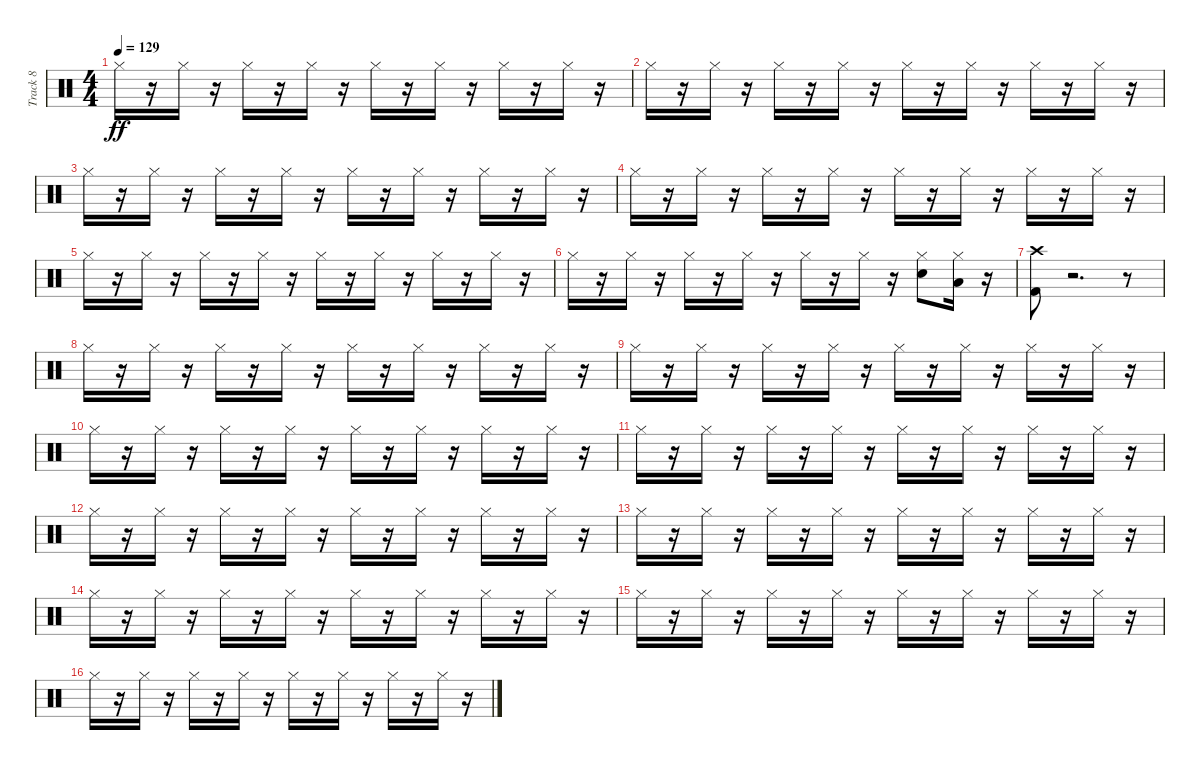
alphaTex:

\track ("Track 8" "Track 8") {instrument percussion}
\staff {score}
\articulation defaults
\ts (4 4)
\tempo 129
\clef neutral
\ks c "Hi-Hat (closed)".16{dy ff}
r.16 "Hi-Hat (closed)".16 r.16 "Hi-Hat (closed)".16 r.16 "Hi-Hat (closed)".16 r.16 "Hi-Hat (closed)".16 r.16 "Hi-Hat (closed)".16 r.16 "Hi-Hat (closed)".16 r.16 "Hi-Hat (closed)".16 r.16 |
"Hi-Hat (closed)".16 r.16 "Hi-Hat (closed)".16 r.16 "Hi-Hat (closed)".16 r.16 "Hi-Hat (closed)".16 r.16 "Hi-Hat (closed)".16 r.16 "Hi-Hat (closed)".16 r.16 "Hi-Hat (closed)".16 r.16 "Hi-Hat (closed)".16 r.16 |
"Hi-Hat (closed)".16 r.16 "Hi-Hat (closed)".16 r.16 "Hi-Hat (closed)".16 r.16 "Hi-Hat (closed)".16 r.16 "Hi-Hat (closed)".16 r.16 "Hi-Hat (closed)".16 r.16 "Hi-Hat (closed)".16 r.16 "Hi-Hat (closed)".16 r.16 |
"Hi-Hat (closed)".16 r.16 "Hi-Hat (closed)".16 r.16 "Hi-Hat (closed)".16 r.16 "Hi-Hat (closed)".16 r.16 "Hi-Hat (closed)".16 r.16 "Hi-Hat (closed)".16 r.16 "Hi-Hat (closed)".16 r.16 "Hi-Hat (closed)".16 r.16 |
"Hi-Hat (closed)".16 r.16 "Hi-Hat (closed)".16 r.16 "Hi-Hat (closed)".16 r.16 "Hi-Hat (closed)".16 r.16 "Hi-Hat (closed)".16 r.16 "Hi-Hat (closed)".16 r.16 "Hi-Hat (closed)".16 r.16 "Hi-Hat (closed)".16 r.16 |
"Hi-Hat (closed)".16 r.16 "Hi-Hat (closed)".16 r.16 "Hi-Hat (closed)".16 r.16 "Hi-Hat (closed)".16 r.16 "Hi-Hat (closed)".16 r.16 "Hi-Hat (closed)".16 r.16 ("Hi-Hat (closed)" "Snare (hit) 2").8 ("Hi-Hat (closed)" "Low Floor Tom (hit)").16 r.16 |
("Crash high (hit)" "Kick (hit) 2").8 r.2{d} r.8 |
"Hi-Hat (closed)".16 r.16 "Hi-Hat (closed)".16 r.16 "Hi-Hat (closed)".16 r.16 "Hi-Hat (closed)".16 r.16 "Hi-Hat (closed)".16 r.16 "Hi-Hat (closed)".16 r.16 "Hi-Hat (closed)".16 r.16 "Hi-Hat (closed)".16 r.16 |
"Hi-Hat (closed)".16 r.16 "Hi-Hat (closed)".16 r.16 "Hi-Hat (closed)".16 r.16 "Hi-Hat (closed)".16 r.16 "Hi-Hat (closed)".16 r.16 "Hi-Hat (closed)".16 r.16 "Hi-Hat (closed)".16 r.16 "Hi-Hat (closed)".16 r.16 |
"Hi-Hat (closed)".16 r.16 "Hi-Hat (closed)".16 r.16 "Hi-Hat (closed)".16 r.16 "Hi-Hat (closed)".16 r.16 "Hi-Hat (closed)".16 r.16 "Hi-Hat (closed)".16 r.16 "Hi-Hat (closed)".16 r.16 "Hi-Hat (closed)".16 r.16 |
"Hi-Hat (closed)".16 r.16 "Hi-Hat (closed)".16 r.16 "Hi-Hat (closed)".16 r.16 "Hi-Hat (closed)".16 r.16 "Hi-Hat (closed)".16 r.16 "Hi-Hat (closed)".16 r.16 "Hi-Hat (closed)".16 r.16 "Hi-Hat (closed)".16 r.16 |
"Hi-Hat (closed)".16 r.16 "Hi-Hat (closed)".16 r.16 "Hi-Hat (closed)".16 r.16 "Hi-Hat (closed)".16 r.16 "Hi-Hat (closed)".16 r.16 "Hi-Hat (closed)".16 r.16 "Hi-Hat (closed)".16 r.16 "Hi-Hat (closed)".16 r.16 |
"Hi-Hat (closed)".16 r.16 "Hi-Hat (closed)".16 r.16 "Hi-Hat (closed)".16 r.16 "Hi-Hat (closed)".16 r.16 "Hi-Hat (closed)".16 r.16 "Hi-Hat (closed)".16 r.16 "Hi-Hat (closed)".16 r.16 "Hi-Hat (closed)".16 r.16 |
"Hi-Hat (closed)".16 r.16 "Hi-Hat (closed)".16 r.16 "Hi-Hat (closed)".16 r.16 "Hi-Hat (closed)".16 r.16 "Hi-Hat (closed)".16 r.16 "Hi-Hat (closed)".16 r.16 "Hi-Hat (closed)".16 r.16 "Hi-Hat (closed)".16 r.16 |
"Hi-Hat (closed)".16 r.16 "Hi-Hat (closed)".16 r.16 "Hi-Hat (closed)".16 r.16 "Hi-Hat (closed)".16 r.16 "Hi-Hat (closed)".16 r.16 "Hi-Hat (closed)".16 r.16 "Hi-Hat (closed)".16 r.16 "Hi-Hat (closed)".16 r.16 |
"Hi-Hat (closed)".16 r.16 "Hi-Hat (closed)".16 r.16 "Hi-Hat (closed)".16 r.16 "Hi-Hat (closed)".16 r.16 "Hi-Hat (closed)".16 r.16 "Hi-Hat (closed)".16 r.16 "Hi-Hat (closed)".16 r.16 "Hi-Hat (closed)".16 r.16
